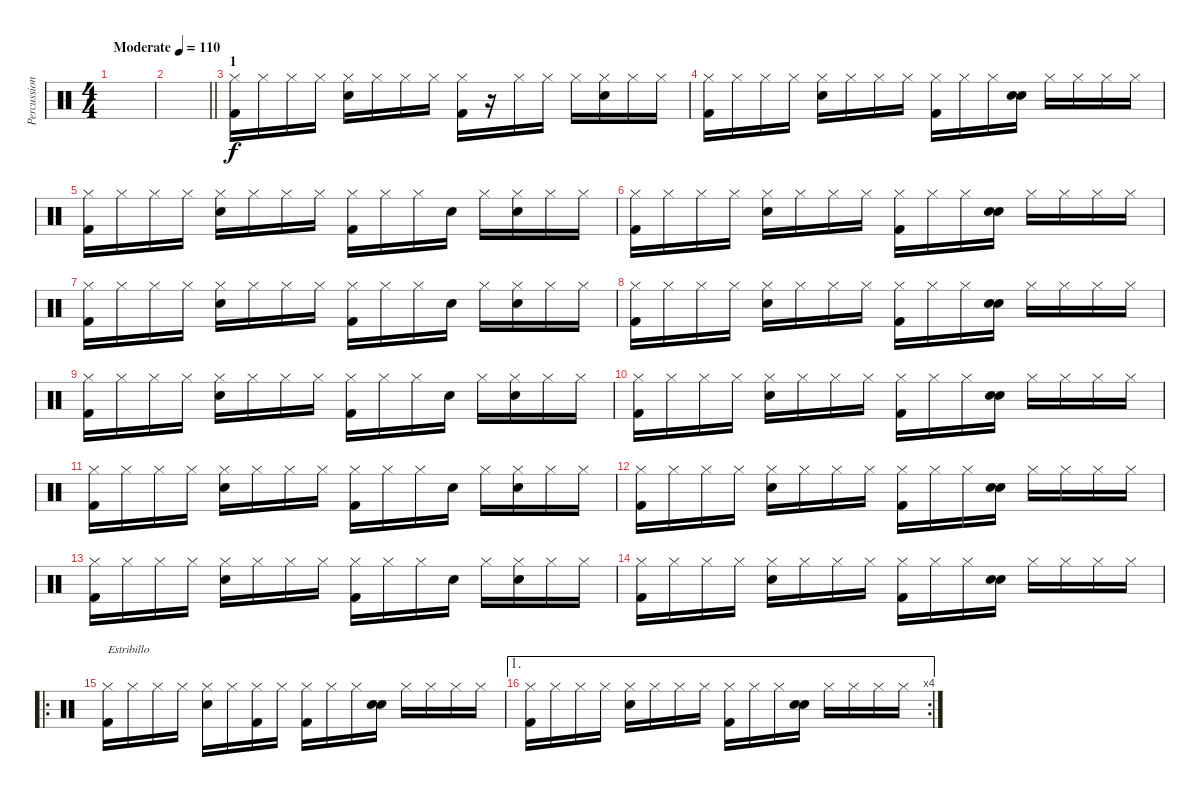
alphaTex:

\track ("Percussion" "Percussion") {instrument percussion}
\staff {score}
\articulation defaults
\ts (4 4)
\tempo (110 "Moderate")
\clef neutral
\ks c
|
\barLineRight lightlight
|
\section ("" "1")
("Hi-Hat (closed)" "Kick (hit) 2").16 "Hi-Hat (closed)".16 "Hi-Hat (closed)".16 "Hi-Hat (closed)".16 ("Hi-Hat (closed)" "Electric Snare (hit)").16 "Hi-Hat (closed)".16 "Hi-Hat (closed)".16 "Hi-Hat (closed)".16 ("Hi-Hat (closed)" "Kick (hit) 2").16 r.16 "Hi-Hat (closed)".16 "Hi-Hat (closed)".16 "Hi-Hat (closed)".16 ("Hi-Hat (closed)" "Electric Snare (hit)").16 "Hi-Hat (closed)".16 "Hi-Hat (closed)".16 |
("Hi-Hat (closed)" "Kick (hit) 2").16 "Hi-Hat (closed)".16 "Hi-Hat (closed)".16 "Hi-Hat (closed)".16 ("Hi-Hat (closed)" "Electric Snare (hit)").16 "Hi-Hat (closed)".16 "Hi-Hat (closed)".16 "Hi-Hat (closed)".16 ("Hi-Hat (closed)" "Kick (hit) 2").16 "Hi-Hat (closed)".16 "Hi-Hat (closed)".16 ("Snare (hit)" "Electric Snare (hit)").16 "Hi-Hat (closed)".16 "Hi-Hat (closed)".16 "Hi-Hat (closed)".16 "Hi-Hat (closed)".16 |
("Hi-Hat (closed)" "Kick (hit) 2").16 "Hi-Hat (closed)".16 "Hi-Hat (closed)".16 "Hi-Hat (closed)".16 ("Hi-Hat (closed)" "Electric Snare (hit)").16 "Hi-Hat (closed)".16 "Hi-Hat (closed)".16 "Hi-Hat (closed)".16 ("Hi-Hat (closed)" "Kick (hit) 2").16 "Hi-Hat (closed)".16 "Hi-Hat (closed)".16 "Snare (hit)".16 "Hi-Hat (closed)".16 ("Hi-Hat (closed)" "Electric Snare (hit)").16 "Hi-Hat (closed)".16 "Hi-Hat (closed)".16 |
("Hi-Hat (closed)" "Kick (hit) 2").16 "Hi-Hat (closed)".16 "Hi-Hat (closed)".16 "Hi-Hat (closed)".16 ("Hi-Hat (closed)" "Electric Snare (hit)").16 "Hi-Hat (closed)".16 "Hi-Hat (closed)".16 "Hi-Hat (closed)".16 ("Hi-Hat (closed)" "Kick (hit) 2").16 "Hi-Hat (closed)".16 "Hi-Hat (closed)".16 ("Snare (hit)" "Electric Snare (hit)").16 "Hi-Hat (closed)".16 "Hi-Hat (closed)".16 "Hi-Hat (closed)".16 "Hi-Hat (closed)".16 |
("Hi-Hat (closed)" "Kick (hit) 2").16 "Hi-Hat (closed)".16 "Hi-Hat (closed)".16 "Hi-Hat (closed)".16 ("Hi-Hat (closed)" "Electric Snare (hit)").16 "Hi-Hat (closed)".16 "Hi-Hat (closed)".16 "Hi-Hat (closed)".16 ("Hi-Hat (closed)" "Kick (hit) 2").16 "Hi-Hat (closed)".16 "Hi-Hat (closed)".16 "Snare (hit)".16 "Hi-Hat (closed)".16 ("Hi-Hat (closed)" "Electric Snare (hit)").16 "Hi-Hat (closed)".16 "Hi-Hat (closed)".16 |
("Hi-Hat (closed)" "Kick (hit) 2").16 "Hi-Hat (closed)".16 "Hi-Hat (closed)".16 "Hi-Hat (closed)".16 ("Hi-Hat (closed)" "Electric Snare (hit)").16 "Hi-Hat (closed)".16 "Hi-Hat (closed)".16 "Hi-Hat (closed)".16 ("Hi-Hat (closed)" "Kick (hit) 2").16 "Hi-Hat (closed)".16 "Hi-Hat (closed)".16 ("Snare (hit)" "Electric Snare (hit)").16 "Hi-Hat (closed)".16 "Hi-Hat (closed)".16 "Hi-Hat (closed)".16 "Hi-Hat (closed)".16 |
("Hi-Hat (closed)" "Kick (hit) 2").16 "Hi-Hat (closed)".16 "Hi-Hat (closed)".16 "Hi-Hat (closed)".16 ("Hi-Hat (closed)" "Electric Snare (hit)").16 "Hi-Hat (closed)".16 "Hi-Hat (closed)".16 "Hi-Hat (closed)".16 ("Hi-Hat (closed)" "Kick (hit) 2").16 "Hi-Hat (closed)".16 "Hi-Hat (closed)".16 "Snare (hit)".16 "Hi-Hat (closed)".16 ("Hi-Hat (closed)" "Electric Snare (hit)").16 "Hi-Hat (closed)".16 "Hi-Hat (closed)".16 |
("Hi-Hat (closed)" "Kick (hit) 2").16 "Hi-Hat (closed)".16 "Hi-Hat (closed)".16 "Hi-Hat (closed)".16 ("Hi-Hat (closed)" "Electric Snare (hit)").16 "Hi-Hat (closed)".16 "Hi-Hat (closed)".16 "Hi-Hat (closed)".16 ("Hi-Hat (closed)" "Kick (hit) 2").16 "Hi-Hat (closed)".16 "Hi-Hat (closed)".16 ("Snare (hit)" "Electric Snare (hit)").16 "Hi-Hat (closed)".16 "Hi-Hat (closed)".16 "Hi-Hat (closed)".16 "Hi-Hat (closed)".16 |
("Hi-Hat (closed)" "Kick (hit) 2").16 "Hi-Hat (closed)".16 "Hi-Hat (closed)".16 "Hi-Hat (closed)".16 ("Hi-Hat (closed)" "Electric Snare (hit)").16 "Hi-Hat (closed)".16 "Hi-Hat (closed)".16 "Hi-Hat (closed)".16 ("Hi-Hat (closed)" "Kick (hit) 2").16 "Hi-Hat (closed)".16 "Hi-Hat (closed)".16 "Snare (hit)".16 "Hi-Hat (closed)".16 ("Hi-Hat (closed)" "Electric Snare (hit)").16 "Hi-Hat (closed)".16 "Hi-Hat (closed)".16 |
("Hi-Hat (closed)" "Kick (hit) 2").16 "Hi-Hat (closed)".16 "Hi-Hat (closed)".16 "Hi-Hat (closed)".16 ("Hi-Hat (closed)" "Electric Snare (hit)").16 "Hi-Hat (closed)".16 "Hi-Hat (closed)".16 "Hi-Hat (closed)".16 ("Hi-Hat (closed)" "Kick (hit) 2").16 "Hi-Hat (closed)".16 "Hi-Hat (closed)".16 ("Snare (hit)" "Electric Snare (hit)").16 "Hi-Hat (closed)".16 "Hi-Hat (closed)".16 "Hi-Hat (closed)".16 "Hi-Hat (closed)".16 |
("Hi-Hat (closed)" "Kick (hit) 2").16 "Hi-Hat (closed)".16 "Hi-Hat (closed)".16 "Hi-Hat (closed)".16 ("Hi-Hat (closed)" "Electric Snare (hit)").16 "Hi-Hat (closed)".16 "Hi-Hat (closed)".16 "Hi-Hat (closed)".16 ("Hi-Hat (closed)" "Kick (hit) 2").16 "Hi-Hat (closed)".16 "Hi-Hat (closed)".16 "Snare (hit)".16 "Hi-Hat (closed)".16 ("Hi-Hat (closed)" "Electric Snare (hit)").16 "Hi-Hat (closed)".16 "Hi-Hat (closed)".16 |
("Hi-Hat (closed)" "Kick (hit) 2").16 "Hi-Hat (closed)".16 "Hi-Hat (closed)".16 "Hi-Hat (closed)".16 ("Hi-Hat (closed)" "Electric Snare (hit)").16 "Hi-Hat (closed)".16 "Hi-Hat (closed)".16 "Hi-Hat (closed)".16 ("Hi-Hat (closed)" "Kick (hit) 2").16 "Hi-Hat (closed)".16 "Hi-Hat (closed)".16 ("Snare (hit)" "Electric Snare (hit)").16 "Hi-Hat (closed)".16 "Hi-Hat (closed)".16 "Hi-Hat (closed)".16 "Hi-Hat (closed)".16 |
\ro
("Hi-Hat (closed)" "Kick (hit) 2").16{txt "Estribillo"} "Hi-Hat (closed)".16 "Hi-Hat (closed)".16 "Hi-Hat (closed)".16 ("Hi-Hat (closed)" "Electric Snare (hit)").16 "Hi-Hat (closed)".16 ("Hi-Hat (closed)" "Kick (hit) 2").16 "Hi-Hat (closed)".16 ("Hi-Hat (closed)" "Kick (hit) 2").16 "Hi-Hat (closed)".16 "Hi-Hat (closed)".16 ("Snare (hit)" "Electric Snare (hit)").16 "Hi-Hat (closed)".16 "Hi-Hat (closed)".16 "Hi-Hat (closed)".16 "Hi-Hat (closed)".16 |
\ae 1
\rc 4
("Hi-Hat (closed)" "Kick (hit) 2").16 "Hi-Hat (closed)".16 "Hi-Hat (closed)".16 "Hi-Hat (closed)".16 ("Hi-Hat (closed)" "Electric Snare (hit)").16 "Hi-Hat (closed)".16 "Hi-Hat (closed)".16 "Hi-Hat (closed)".16 ("Hi-Hat (closed)" "Kick (hit) 2").16 "Hi-Hat (closed)".16 "Hi-Hat (closed)".16 ("Snare (hit)" "Electric Snare (hit)").16 "Hi-Hat (closed)".16 "Hi-Hat (closed)".16 "Hi-Hat (closed)".16 "Hi-Hat (closed)".16
